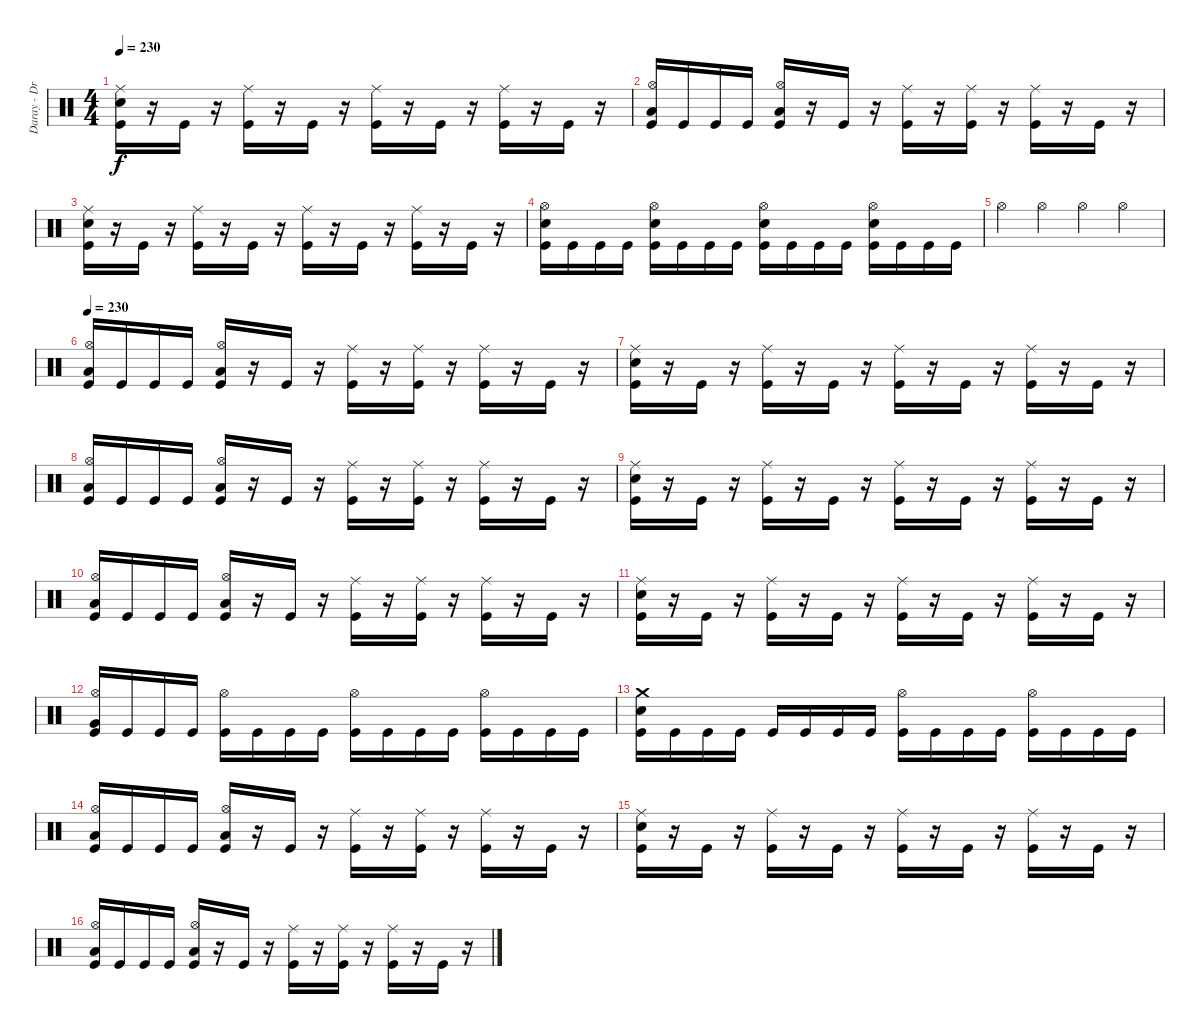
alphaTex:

\track ("Daray - Drums" "Daray - Dr") {instrument percussion}
\staff {score}
\articulation defaults
\ts (4 4)
\tempo 230
\clef neutral
\ks c
("Ride (middle)" "Electric Snare (hit)" "Kick (hit)").16{dy f} r.16 "Kick (hit)".16 r.16 ("Ride (middle)" "Kick (hit)").16 r.16 "Kick (hit)".16 r.16 ("Ride (middle)" "Kick (hit)").16 r.16 "Kick (hit)".16 r.16 ("Ride (middle)" "Kick (hit)").16 r.16 "Kick (hit)".16 r.16 |
("Hi-Hat (open)" "Low Floor Tom (hit)" "Kick (hit)").16 "Kick (hit)".16 "Kick (hit)".16 "Kick (hit)".16 ("Hi-Hat (open)" "Low Floor Tom (hit)" "Kick (hit)").16 r.16 "Kick (hit)".16 r.16 ("Ride (middle)" "Kick (hit)").16 r.16 ("Ride (middle)" "Kick (hit)").16 r.16 ("Ride (middle)" "Kick (hit)").16 r.16 "Kick (hit)".16 r.16 |
("Ride (middle)" "Electric Snare (hit)" "Kick (hit)").16 r.16 "Kick (hit)".16 r.16 ("Ride (middle)" "Kick (hit)").16 r.16 "Kick (hit)".16 r.16 ("Ride (middle)" "Kick (hit)").16 r.16 "Kick (hit)".16 r.16 ("Ride (middle)" "Kick (hit)").16 r.16 "Kick (hit)".16 r.16 |
("Hi-Hat (open)" "Electric Snare (hit)" "Kick (hit)").16 "Kick (hit)".16 "Kick (hit)".16 "Kick (hit)".16 ("Hi-Hat (open)" "Electric Snare (hit)" "Kick (hit)").16 "Kick (hit)".16 "Kick (hit)".16 "Kick (hit)".16 ("Hi-Hat (open)" "Electric Snare (hit)" "Kick (hit)").16 "Kick (hit)".16 "Kick (hit)".16 "Kick (hit)".16 ("Hi-Hat (open)" "Electric Snare (hit)" "Kick (hit)").16 "Kick (hit)".16 "Kick (hit)".16 "Kick (hit)".16 |
"Hi-Hat (open)".4 "Hi-Hat (open)".4 "Hi-Hat (open)".4 "Hi-Hat (open)".4 |
\tempo 230
("Hi-Hat (open)" "Low Floor Tom (hit)" "Kick (hit)").16 "Kick (hit)".16 "Kick (hit)".16 "Kick (hit)".16 ("Hi-Hat (open)" "Low Floor Tom (hit)" "Kick (hit)").16 r.16 "Kick (hit)".16 r.16 ("Ride (middle)" "Kick (hit)").16 r.16 ("Ride (middle)" "Kick (hit)").16 r.16 ("Ride (middle)" "Kick (hit)").16 r.16 "Kick (hit)".16 r.16 |
("Ride (middle)" "Electric Snare (hit)" "Kick (hit)").16 r.16 "Kick (hit)".16 r.16 ("Ride (middle)" "Kick (hit)").16 r.16 "Kick (hit)".16 r.16 ("Ride (middle)" "Kick (hit)").16 r.16 "Kick (hit)".16 r.16 ("Ride (middle)" "Kick (hit)").16 r.16 "Kick (hit)".16 r.16 |
("Hi-Hat (open)" "Low Floor Tom (hit)" "Kick (hit)").16 "Kick (hit)".16 "Kick (hit)".16 "Kick (hit)".16 ("Hi-Hat (open)" "Low Floor Tom (hit)" "Kick (hit)").16 r.16 "Kick (hit)".16 r.16 ("Ride (middle)" "Kick (hit)").16 r.16 ("Ride (middle)" "Kick (hit)").16 r.16 ("Ride (middle)" "Kick (hit)").16 r.16 "Kick (hit)".16 r.16 |
("Ride (middle)" "Electric Snare (hit)" "Kick (hit)").16 r.16 "Kick (hit)".16 r.16 ("Ride (middle)" "Kick (hit)").16 r.16 "Kick (hit)".16 r.16 ("Ride (middle)" "Kick (hit)").16 r.16 "Kick (hit)".16 r.16 ("Ride (middle)" "Kick (hit)").16 r.16 "Kick (hit)".16 r.16 |
("Hi-Hat (open)" "Low Floor Tom (hit)" "Kick (hit)").16 "Kick (hit)".16 "Kick (hit)".16 "Kick (hit)".16 ("Hi-Hat (open)" "Low Floor Tom (hit)" "Kick (hit)").16 r.16 "Kick (hit)".16 r.16 ("Ride (middle)" "Kick (hit)").16 r.16 ("Ride (middle)" "Kick (hit)").16 r.16 ("Ride (middle)" "Kick (hit)").16 r.16 "Kick (hit)".16 r.16 |
("Ride (middle)" "Electric Snare (hit)" "Kick (hit)").16 r.16 "Kick (hit)".16 r.16 ("Ride (middle)" "Kick (hit)").16 r.16 "Kick (hit)".16 r.16 ("Ride (middle)" "Kick (hit)").16 r.16 "Kick (hit)".16 r.16 ("Ride (middle)" "Kick (hit)").16 r.16 "Kick (hit)".16 r.16 |
("Hi-Hat (open)" "Very Low Tom (hit)" "Kick (hit)").16 "Kick (hit)".16 "Kick (hit)".16 "Kick (hit)".16 ("Hi-Hat (open)" "Kick (hit)").16 "Kick (hit)".16 "Kick (hit)".16 "Kick (hit)".16 ("Hi-Hat (open)" "Kick (hit)").16 "Kick (hit)".16 "Kick (hit)".16 "Kick (hit)".16 ("Hi-Hat (open)" "Kick (hit)").16 "Kick (hit)".16 "Kick (hit)".16 "Kick (hit)".16 |
("Crash medium (hit)" "Electric Snare (hit)" "Kick (hit)").16 "Kick (hit)".16 "Kick (hit)".16 "Kick (hit)".16 "Kick (hit)".16 "Kick (hit)".16 "Kick (hit)".16 "Kick (hit)".16 ("Hi-Hat (open)" "Kick (hit)").16 "Kick (hit)".16 "Kick (hit)".16 "Kick (hit)".16 ("Hi-Hat (open)" "Kick (hit)").16 "Kick (hit)".16 "Kick (hit)".16 "Kick (hit)".16 |
("Hi-Hat (open)" "Low Floor Tom (hit)" "Kick (hit)").16 "Kick (hit)".16 "Kick (hit)".16 "Kick (hit)".16 ("Hi-Hat (open)" "Low Floor Tom (hit)" "Kick (hit)").16 r.16 "Kick (hit)".16 r.16 ("Ride (middle)" "Kick (hit)").16 r.16 ("Ride (middle)" "Kick (hit)").16 r.16 ("Ride (middle)" "Kick (hit)").16 r.16 "Kick (hit)".16 r.16 |
("Ride (middle)" "Electric Snare (hit)" "Kick (hit)").16 r.16 "Kick (hit)".16 r.16 ("Ride (middle)" "Kick (hit)").16 r.16 "Kick (hit)".16 r.16 ("Ride (middle)" "Kick (hit)").16 r.16 "Kick (hit)".16 r.16 ("Ride (middle)" "Kick (hit)").16 r.16 "Kick (hit)".16 r.16 |
("Hi-Hat (open)" "Low Floor Tom (hit)" "Kick (hit)").16 "Kick (hit)".16 "Kick (hit)".16 "Kick (hit)".16 ("Hi-Hat (open)" "Low Floor Tom (hit)" "Kick (hit)").16 r.16 "Kick (hit)".16 r.16 ("Ride (middle)" "Kick (hit)").16 r.16 ("Ride (middle)" "Kick (hit)").16 r.16 ("Ride (middle)" "Kick (hit)").16 r.16 "Kick (hit)".16 r.16
